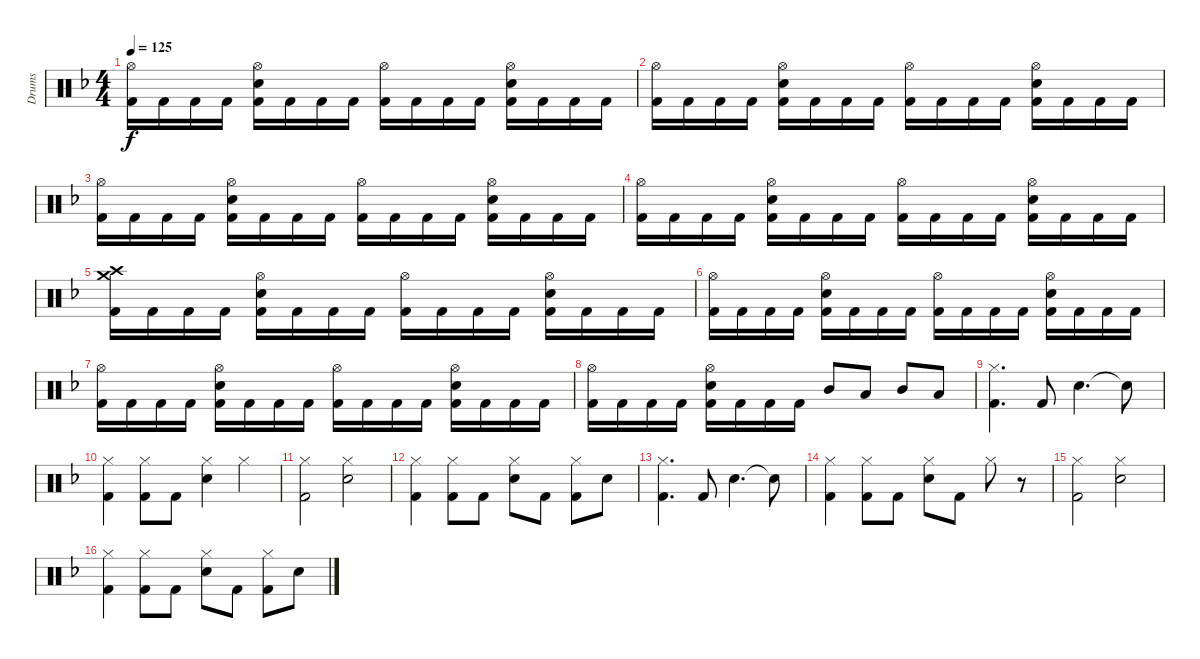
\track ("Drums" "Drums") {instrument percussion}
\staff {score}
\articulation defaults
\ts (4 4)
\tempo 125
\clef neutral
\ks f
("Hi-Hat (open)" "Kick (hit) 2").16{dy f} "Kick (hit) 2".16 "Kick (hit) 2".16 "Kick (hit) 2".16 ("Hi-Hat (open)" "Snare (hit) 2" "Kick (hit) 2").16 "Kick (hit) 2".16 "Kick (hit) 2".16 "Kick (hit) 2".16 ("Hi-Hat (open)" "Kick (hit) 2").16 "Kick (hit) 2".16 "Kick (hit) 2".16 "Kick (hit) 2".16 ("Hi-Hat (open)" "Snare (hit) 2" "Kick (hit) 2").16 "Kick (hit) 2".16 "Kick (hit) 2".16 "Kick (hit) 2".16 |
("Hi-Hat (open)" "Kick (hit) 2").16 "Kick (hit) 2".16 "Kick (hit) 2".16 "Kick (hit) 2".16 ("Hi-Hat (open)" "Snare (hit) 2" "Kick (hit) 2").16 "Kick (hit) 2".16 "Kick (hit) 2".16 "Kick (hit) 2".16 ("Hi-Hat (open)" "Kick (hit) 2").16 "Kick (hit) 2".16 "Kick (hit) 2".16 "Kick (hit) 2".16 ("Hi-Hat (open)" "Snare (hit) 2" "Kick (hit) 2").16 "Kick (hit) 2".16 "Kick (hit) 2".16 "Kick (hit) 2".16 |
("Hi-Hat (open)" "Kick (hit) 2").16 "Kick (hit) 2".16 "Kick (hit) 2".16 "Kick (hit) 2".16 ("Hi-Hat (open)" "Snare (hit) 2" "Kick (hit) 2").16 "Kick (hit) 2".16 "Kick (hit) 2".16 "Kick (hit) 2".16 ("Hi-Hat (open)" "Kick (hit) 2").16 "Kick (hit) 2".16 "Kick (hit) 2".16 "Kick (hit) 2".16 ("Hi-Hat (open)" "Snare (hit) 2" "Kick (hit) 2").16 "Kick (hit) 2".16 "Kick (hit) 2".16 "Kick (hit) 2".16 |
("Hi-Hat (open)" "Kick (hit) 2").16 "Kick (hit) 2".16 "Kick (hit) 2".16 "Kick (hit) 2".16 ("Hi-Hat (open)" "Snare (hit) 2" "Kick (hit) 2").16 "Kick (hit) 2".16 "Kick (hit) 2".16 "Kick (hit) 2".16 ("Hi-Hat (open)" "Kick (hit) 2").16 "Kick (hit) 2".16 "Kick (hit) 2".16 "Kick (hit) 2".16 ("Hi-Hat (open)" "Snare (hit) 2" "Kick (hit) 2").16 "Kick (hit) 2".16 "Kick (hit) 2".16 "Kick (hit) 2".16 |
("Crash medium (hit)" "Crash high (hit)" "Kick (hit) 2").16 "Kick (hit) 2".16 "Kick (hit) 2".16 "Kick (hit) 2".16 ("Hi-Hat (open)" "Snare (hit) 2" "Kick (hit) 2").16 "Kick (hit) 2".16 "Kick (hit) 2".16 "Kick (hit) 2".16 ("Hi-Hat (open)" "Kick (hit) 2").16 "Kick (hit) 2".16 "Kick (hit) 2".16 "Kick (hit) 2".16 ("Hi-Hat (open)" "Snare (hit) 2" "Kick (hit) 2").16 "Kick (hit) 2".16 "Kick (hit) 2".16 "Kick (hit) 2".16 |
("Hi-Hat (open)" "Kick (hit) 2").16 "Kick (hit) 2".16 "Kick (hit) 2".16 "Kick (hit) 2".16 ("Hi-Hat (open)" "Snare (hit) 2" "Kick (hit) 2").16 "Kick (hit) 2".16 "Kick (hit) 2".16 "Kick (hit) 2".16 ("Hi-Hat (open)" "Kick (hit) 2").16 "Kick (hit) 2".16 "Kick (hit) 2".16 "Kick (hit) 2".16 ("Hi-Hat (open)" "Snare (hit) 2" "Kick (hit) 2").16 "Kick (hit) 2".16 "Kick (hit) 2".16 "Kick (hit) 2".16 |
("Hi-Hat (open)" "Kick (hit) 2").16 "Kick (hit) 2".16 "Kick (hit) 2".16 "Kick (hit) 2".16 ("Hi-Hat (open)" "Snare (hit) 2" "Kick (hit) 2").16 "Kick (hit) 2".16 "Kick (hit) 2".16 "Kick (hit) 2".16 ("Hi-Hat (open)" "Kick (hit) 2").16 "Kick (hit) 2".16 "Kick (hit) 2".16 "Kick (hit) 2".16 ("Hi-Hat (open)" "Snare (hit) 2" "Kick (hit) 2").16 "Kick (hit) 2".16 "Kick (hit) 2".16 "Kick (hit) 2".16 |
("Hi-Hat (open)" "Kick (hit) 2").16 "Kick (hit) 2".16 "Kick (hit) 2".16 "Kick (hit) 2".16 ("Hi-Hat (open)" "Snare (hit) 2" "Kick (hit) 2").16 "Kick (hit) 2".16 "Kick (hit) 2".16 "Kick (hit) 2".16 "Mid Tom (hit)".8 "Low Tom (hit)".8 "Mid Tom (hit)".8 "Low Tom (hit)".8 |
("Hi-Hat (closed)" "Kick (hit) 2").4{d} "Kick (hit) 2".8 "Snare (hit) 2".4{d} "Snare (hit)"{t}.8 |
("Hi-Hat (closed)" "Kick (hit) 2").4 ("Hi-Hat (closed)" "Kick (hit) 2").8 "Kick (hit) 2".8 ("Hi-Hat (closed)" "Snare (hit) 2").4 "Hi-Hat (closed)".4 |
("Hi-Hat (closed)" "Kick (hit) 2").2 ("Hi-Hat (closed)" "Snare (hit) 2").2 |
("Hi-Hat (closed)" "Kick (hit) 2").4 ("Hi-Hat (closed)" "Kick (hit) 2").8 "Kick (hit) 2".8 ("Hi-Hat (closed)" "Snare (hit) 2").8 "Kick (hit) 2".8 ("Hi-Hat (closed)" "Kick (hit) 2").8 "Snare (hit) 2".8 |
("Hi-Hat (closed)" "Kick (hit) 2").4{d} "Kick (hit) 2".8 "Snare (hit) 2".4{d} "Snare (hit)"{t}.8 |
("Hi-Hat (closed)" "Kick (hit) 2").4 ("Hi-Hat (closed)" "Kick (hit) 2").8 "Kick (hit) 2".8 ("Hi-Hat (closed)" "Snare (hit) 2").8 "Kick (hit) 2".8 "Hi-Hat (closed)".8 r.8 |
("Hi-Hat (closed)" "Kick (hit) 2").2 ("Hi-Hat (closed)" "Snare (hit) 2").2 |
("Hi-Hat (closed)" "Kick (hit) 2").4 ("Hi-Hat (closed)" "Kick (hit) 2").8 "Kick (hit) 2".8 ("Hi-Hat (closed)" "Snare (hit) 2").8 "Kick (hit) 2".8 ("Hi-Hat (closed)" "Kick (hit) 2").8 "Snare (hit) 2".8
